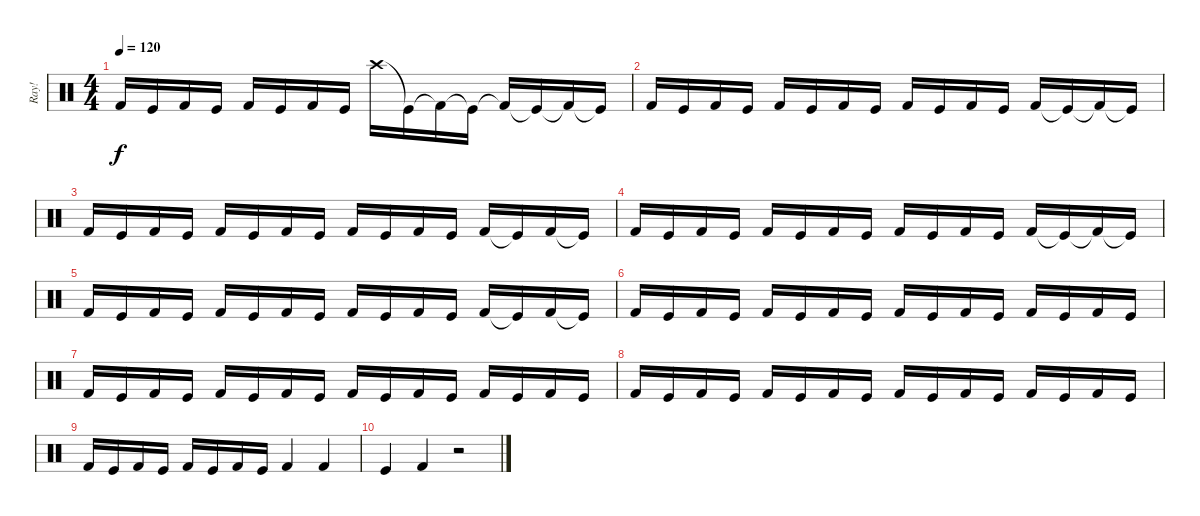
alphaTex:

\track ("Ray!" "Ray!") {instrument percussion}
\staff {score}
\articulation defaults
\ts (4 4)
\tempo 120
\clef neutral
\ks c "Kick (hit) 2".16{dy f} "Kick (hit)".16 "Kick (hit) 2".16 "Kick (hit)".16 "Kick (hit) 2".16 "Kick (hit)".16 "Kick (hit) 2".16 "Kick (hit)".16 "Crash high (hit)".16 "Kick (hit)"{t}.16 "Kick (hit) 2"{t}.16 "Kick (hit)"{t}.16 "Kick (hit) 2"{t}.16 "Kick (hit)"{t}.16 "Kick (hit) 2"{t}.16 "Kick (hit)"{t}.16
|
"Kick (hit) 2".16 "Kick (hit)".16 "Kick (hit) 2".16 "Kick (hit)".16 "Kick (hit) 2".16 "Kick (hit)".16 "Kick (hit) 2".16 "Kick (hit)".16 "Kick (hit) 2".16 "Kick (hit)".16 "Kick (hit) 2".16 "Kick (hit)".16 "Kick (hit) 2".16 "Kick (hit)"{t}.16 "Kick (hit) 2"{t}.16 "Kick (hit)"{t}.16 |
"Kick (hit) 2".16 "Kick (hit)".16 "Kick (hit) 2".16 "Kick (hit)".16 "Kick (hit) 2".16 "Kick (hit)".16 "Kick (hit) 2".16 "Kick (hit)".16 "Kick (hit) 2".16 "Kick (hit)".16 "Kick (hit) 2".16 "Kick (hit)".16 "Kick (hit) 2".16 "Kick (hit)"{t}.16 "Kick (hit) 2".16 "Kick (hit)"{t}.16 |
"Kick (hit) 2".16 "Kick (hit)".16 "Kick (hit) 2".16 "Kick (hit)".16 "Kick (hit) 2".16 "Kick (hit)".16 "Kick (hit) 2".16 "Kick (hit)".16 "Kick (hit) 2".16 "Kick (hit)".16 "Kick (hit) 2".16 "Kick (hit)".16 "Kick (hit) 2".16 "Kick (hit)"{t}.16 "Kick (hit) 2"{t}.16 "Kick (hit)"{t}.16 |
"Kick (hit) 2".16 "Kick (hit)".16 "Kick (hit) 2".16 "Kick (hit)".16 "Kick (hit) 2".16 "Kick (hit)".16 "Kick (hit) 2".16 "Kick (hit)".16 "Kick (hit) 2".16 "Kick (hit)".16 "Kick (hit) 2".16 "Kick (hit)".16 "Kick (hit) 2".16 "Kick (hit)"{t}.16 "Kick (hit) 2".16 "Kick (hit)"{t}.16 |
"Kick (hit) 2".16 "Kick (hit)".16 "Kick (hit) 2".16 "Kick (hit)".16 "Kick (hit) 2".16 "Kick (hit)".16 "Kick (hit) 2".16 "Kick (hit)".16 "Kick (hit) 2".16 "Kick (hit)".16 "Kick (hit) 2".16 "Kick (hit)".16 "Kick (hit) 2".16 "Kick (hit)".16 "Kick (hit) 2".16 "Kick (hit)".16 |
"Kick (hit) 2".16 "Kick (hit)".16 "Kick (hit) 2".16 "Kick (hit)".16 "Kick (hit) 2".16 "Kick (hit)".16 "Kick (hit) 2".16 "Kick (hit)".16 "Kick (hit) 2".16 "Kick (hit)".16 "Kick (hit) 2".16 "Kick (hit)".16 "Kick (hit) 2".16 "Kick (hit)".16 "Kick (hit) 2".16 "Kick (hit)".16 |
"Kick (hit) 2".16 "Kick (hit)".16 "Kick (hit) 2".16 "Kick (hit)".16 "Kick (hit) 2".16 "Kick (hit)".16 "Kick (hit) 2".16 "Kick (hit)".16 "Kick (hit) 2".16 "Kick (hit)".16 "Kick (hit) 2".16 "Kick (hit)".16 "Kick (hit) 2".16 "Kick (hit)".16 "Kick (hit) 2".16 "Kick (hit)".16 |
"Kick (hit) 2".16 "Kick (hit)".16 "Kick (hit) 2".16 "Kick (hit)".16 "Kick (hit) 2".16 "Kick (hit)".16 "Kick (hit) 2".16 "Kick (hit)".16 "Kick (hit) 2".4 "Kick (hit) 2".4 |
"Kick (hit)".4 "Kick (hit) 2".4 r.2
